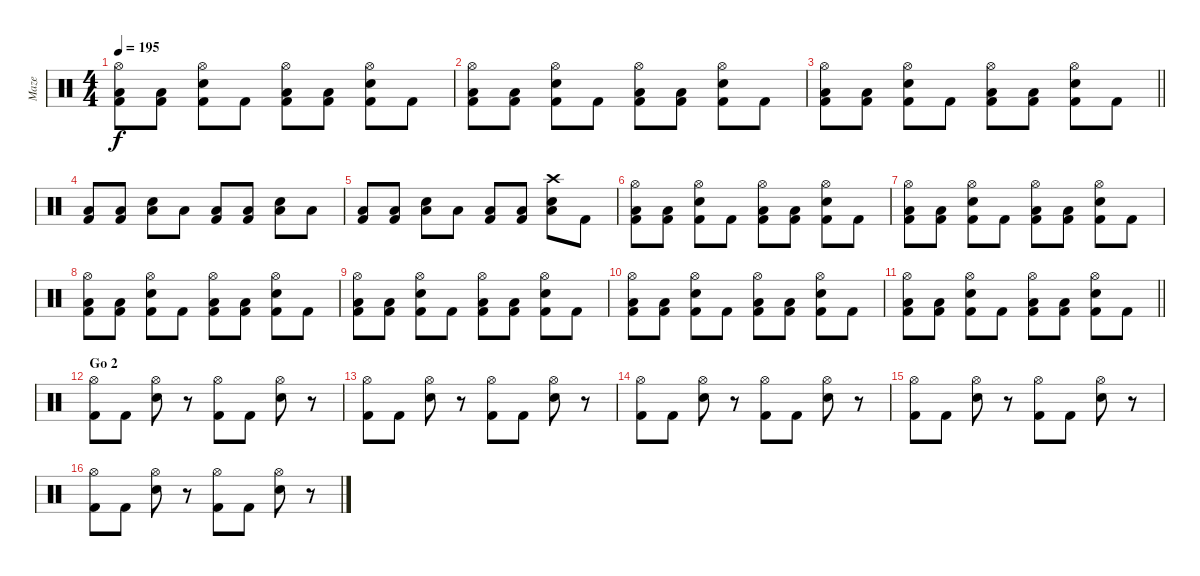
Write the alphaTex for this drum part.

\track ("Maze" "Maze") {instrument percussion}
\staff
\articulation defaults
\ts (4 4)
\tempo 195
\clef neutral
\ks c
("Hi-Hat (open)" "Low Tom (hit)" "Kick (hit) 2").8{dy f} ("Low Tom (hit)" "Kick (hit) 2").8 ("Snare (hit) 2" "Hi-Hat (open)" "Kick (hit) 2").8 "Kick (hit) 2".8 ("Hi-Hat (open)" "Low Tom (hit)" "Kick (hit) 2").8 ("Low Tom (hit)" "Kick (hit) 2").8 ("Snare (hit) 2" "Hi-Hat (open)" "Kick (hit) 2").8 "Kick (hit) 2".8 |
("Hi-Hat (open)" "Low Tom (hit)" "Kick (hit) 2").8 ("Low Tom (hit)" "Kick (hit) 2").8 ("Snare (hit) 2" "Hi-Hat (open)" "Kick (hit) 2").8 "Kick (hit) 2".8 ("Hi-Hat (open)" "Low Tom (hit)" "Kick (hit) 2").8 ("Low Tom (hit)" "Kick (hit) 2").8 ("Snare (hit) 2" "Hi-Hat (open)" "Kick (hit) 2").8 "Kick (hit) 2".8 |
\barLineRight lightlight
("Hi-Hat (open)" "Low Tom (hit)" "Kick (hit) 2").8 ("Low Tom (hit)" "Kick (hit) 2").8 ("Snare (hit) 2" "Hi-Hat (open)" "Kick (hit) 2").8 "Kick (hit) 2".8 ("Hi-Hat (open)" "Low Tom (hit)" "Kick (hit) 2").8 ("Low Tom (hit)" "Kick (hit) 2").8 ("Snare (hit) 2" "Hi-Hat (open)" "Kick (hit) 2").8 "Kick (hit) 2".8 |
("Low Tom (hit)" "Kick (hit) 2").8 ("Low Tom (hit)" "Kick (hit) 2").8 ("Snare (hit) 2" "Low Tom (hit)").8 "Low Tom (hit)".8 ("Low Tom (hit)" "Kick (hit) 2").8 ("Low Tom (hit)" "Kick (hit) 2").8 ("Snare (hit) 2" "Low Tom (hit)").8 "Low Tom (hit)".8 |
("Low Tom (hit)" "Kick (hit) 2").8 ("Low Tom (hit)" "Kick (hit) 2").8 ("Snare (hit) 2" "Low Tom (hit)").8 "Low Tom (hit)".8 ("Low Tom (hit)" "Kick (hit) 2").8 ("Low Tom (hit)" "Kick (hit) 2").8 ("Crash high (hit)" "Snare (hit) 2" "Low Tom (hit)").8 "Kick (hit) 2".8 |
("Hi-Hat (open)" "Low Tom (hit)" "Kick (hit) 2").8 ("Low Tom (hit)" "Kick (hit) 2").8 ("Snare (hit) 2" "Hi-Hat (open)" "Kick (hit) 2").8 "Kick (hit) 2".8 ("Hi-Hat (open)" "Low Tom (hit)" "Kick (hit) 2").8 ("Low Tom (hit)" "Kick (hit) 2").8 ("Snare (hit) 2" "Hi-Hat (open)" "Kick (hit) 2").8 "Kick (hit) 2".8 |
("Hi-Hat (open)" "Low Tom (hit)" "Kick (hit) 2").8 ("Low Tom (hit)" "Kick (hit) 2").8 ("Snare (hit) 2" "Hi-Hat (open)" "Kick (hit) 2").8 "Kick (hit) 2".8 ("Hi-Hat (open)" "Low Tom (hit)" "Kick (hit) 2").8 ("Low Tom (hit)" "Kick (hit) 2").8 ("Snare (hit) 2" "Hi-Hat (open)" "Kick (hit) 2").8 "Kick (hit) 2".8 |
("Hi-Hat (open)" "Low Tom (hit)" "Kick (hit) 2").8 ("Low Tom (hit)" "Kick (hit) 2").8 ("Snare (hit) 2" "Hi-Hat (open)" "Kick (hit) 2").8 "Kick (hit) 2".8 ("Hi-Hat (open)" "Low Tom (hit)" "Kick (hit) 2").8 ("Low Tom (hit)" "Kick (hit) 2").8 ("Snare (hit) 2" "Hi-Hat (open)" "Kick (hit) 2").8 "Kick (hit) 2".8 |
("Hi-Hat (open)" "Low Tom (hit)" "Kick (hit) 2").8 ("Low Tom (hit)" "Kick (hit) 2").8 ("Snare (hit) 2" "Hi-Hat (open)" "Kick (hit) 2").8 "Kick (hit) 2".8 ("Hi-Hat (open)" "Low Tom (hit)" "Kick (hit) 2").8 ("Low Tom (hit)" "Kick (hit) 2").8 ("Snare (hit) 2" "Hi-Hat (open)" "Kick (hit) 2").8 "Kick (hit) 2".8 |
("Hi-Hat (open)" "Low Tom (hit)" "Kick (hit) 2").8 ("Low Tom (hit)" "Kick (hit) 2").8 ("Snare (hit) 2" "Hi-Hat (open)" "Kick (hit) 2").8 "Kick (hit) 2".8 ("Hi-Hat (open)" "Low Tom (hit)" "Kick (hit) 2").8 ("Low Tom (hit)" "Kick (hit) 2").8 ("Snare (hit) 2" "Hi-Hat (open)" "Kick (hit) 2").8 "Kick (hit) 2".8 |
\barLineRight lightlight
("Hi-Hat (open)" "Low Tom (hit)" "Kick (hit) 2").8 ("Low Tom (hit)" "Kick (hit) 2").8 ("Snare (hit) 2" "Hi-Hat (open)" "Kick (hit) 2").8 "Kick (hit) 2".8 ("Hi-Hat (open)" "Low Tom (hit)" "Kick (hit) 2").8 ("Low Tom (hit)" "Kick (hit) 2").8 ("Snare (hit) 2" "Hi-Hat (open)" "Kick (hit) 2").8 "Kick (hit) 2".8 |
\section ("" "Go 2")
("Hi-Hat (open)" "Kick (hit) 2").8 "Kick (hit) 2".8 ("Snare (hit) 2" "Hi-Hat (open)").8 r.8 ("Hi-Hat (open)" "Kick (hit) 2").8 "Kick (hit) 2".8 ("Snare (hit) 2" "Hi-Hat (open)").8 r.8 |
("Hi-Hat (open)" "Kick (hit) 2").8 "Kick (hit) 2".8 ("Snare (hit) 2" "Hi-Hat (open)").8 r.8 ("Hi-Hat (open)" "Kick (hit) 2").8 "Kick (hit) 2".8 ("Snare (hit) 2" "Hi-Hat (open)").8 r.8 |
("Hi-Hat (open)" "Kick (hit) 2").8 "Kick (hit) 2".8 ("Snare (hit) 2" "Hi-Hat (open)").8 r.8 ("Hi-Hat (open)" "Kick (hit) 2").8 "Kick (hit) 2".8 ("Snare (hit) 2" "Hi-Hat (open)").8 r.8 |
("Hi-Hat (open)" "Kick (hit) 2").8 "Kick (hit) 2".8 ("Snare (hit) 2" "Hi-Hat (open)").8 r.8 ("Hi-Hat (open)" "Kick (hit) 2").8 "Kick (hit) 2".8 ("Snare (hit) 2" "Hi-Hat (open)").8 r.8 |
("Hi-Hat (open)" "Kick (hit) 2").8 "Kick (hit) 2".8 ("Snare (hit) 2" "Hi-Hat (open)").8 r.8 ("Hi-Hat (open)" "Kick (hit) 2").8 "Kick (hit) 2".8 ("Snare (hit) 2" "Hi-Hat (open)").8 r.8
